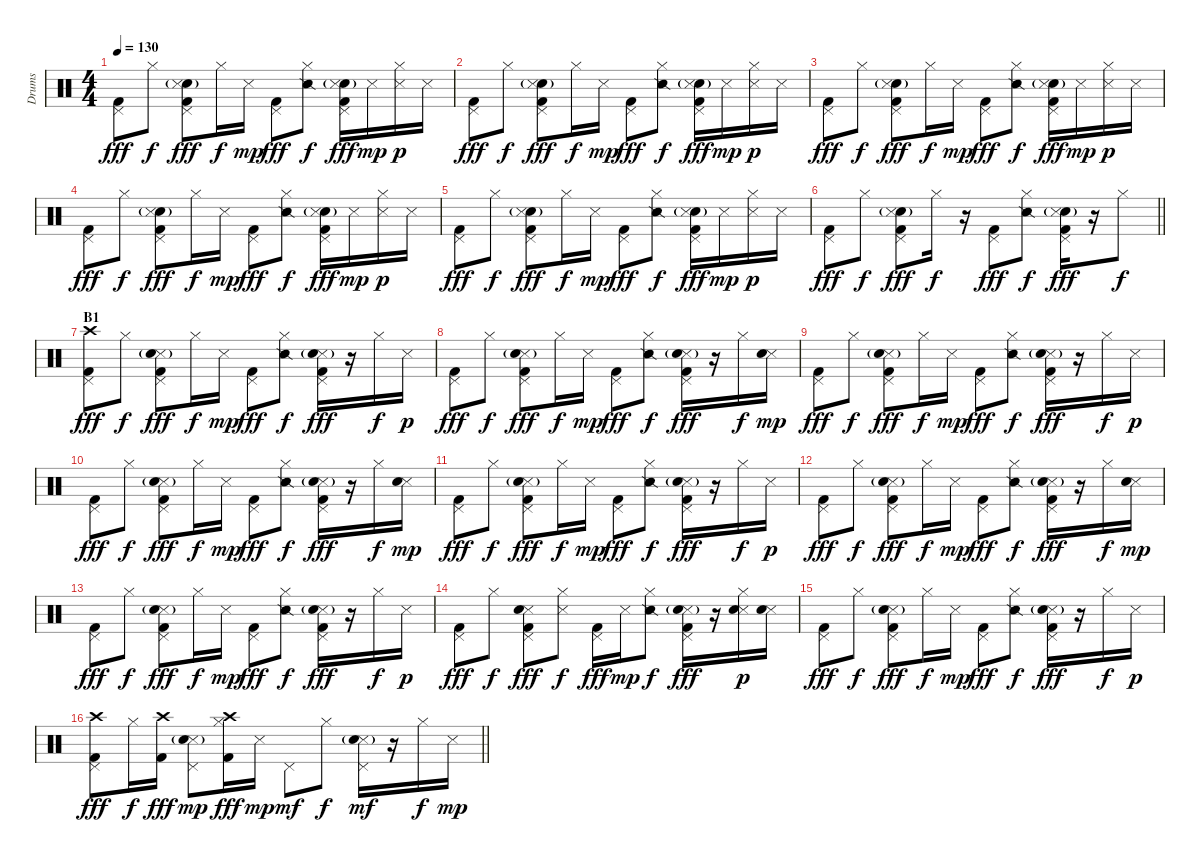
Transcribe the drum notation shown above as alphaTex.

\track ("Drums" "Drums") {instrument percussion}
\staff {score}
\articulation defaults
\ts (4 4)
\tempo 130
\clef neutral
\ks c
("Pedal Hi-Hat (hit)" "Kick (hit) 2").8{dy fff} "Hi-Hat (closed)".8{dy f} ("Pedal Hi-Hat (hit)" "Electric Snare (hit)"{g} "Snare (side stick) 3" "Kick (hit) 2").8{dy fff} "Hi-Hat (closed)".16{dy f} "Snare (side stick) 3".16{dy mp} ("Pedal Hi-Hat (hit)" "Kick (hit) 2").8{dy fff} ("Hi-Hat (closed)" "Snare (side stick) 2").8{dy f} ("Pedal Hi-Hat (hit)" "Electric Snare (hit)"{g} "Snare (side stick) 3" "Kick (hit) 2").16{dy fff} "Snare (side stick) 3".16{dy mp} ("Hi-Hat (closed)" "Snare (side stick) 3").16{dy p} "Snare (side stick) 3".16 |
("Pedal Hi-Hat (hit)" "Kick (hit) 2").8{dy fff} "Hi-Hat (closed)".8{dy f} ("Pedal Hi-Hat (hit)" "Electric Snare (hit)"{g} "Snare (side stick) 3" "Kick (hit) 2").8{dy fff} "Hi-Hat (closed)".16{dy f} "Snare (side stick) 3".16{dy mp} ("Pedal Hi-Hat (hit)" "Kick (hit) 2").8{dy fff} ("Hi-Hat (closed)" "Snare (side stick) 2").8{dy f} ("Pedal Hi-Hat (hit)" "Electric Snare (hit)"{g} "Snare (side stick) 3" "Kick (hit) 2").16{dy fff} "Snare (side stick) 3".16{dy mp} ("Hi-Hat (closed)" "Snare (side stick) 3").16{dy p} "Snare (side stick) 3".16 |
("Pedal Hi-Hat (hit)" "Kick (hit) 2").8{dy fff} "Hi-Hat (closed)".8{dy f} ("Pedal Hi-Hat (hit)" "Electric Snare (hit)"{g} "Snare (side stick) 3" "Kick (hit) 2").8{dy fff} "Hi-Hat (closed)".16{dy f} "Snare (side stick) 3".16{dy mp} ("Pedal Hi-Hat (hit)" "Kick (hit) 2").8{dy fff} ("Hi-Hat (closed)" "Snare (side stick) 2").8{dy f} ("Pedal Hi-Hat (hit)" "Electric Snare (hit)"{g} "Snare (side stick) 3" "Kick (hit) 2").16{dy fff} "Snare (side stick) 3".16{dy mp} ("Hi-Hat (closed)" "Snare (side stick) 3").16{dy p} "Snare (side stick) 3".16 |
("Pedal Hi-Hat (hit)" "Kick (hit) 2").8{dy fff} "Hi-Hat (closed)".8{dy f} ("Pedal Hi-Hat (hit)" "Electric Snare (hit)"{g} "Snare (side stick) 3" "Kick (hit) 2").8{dy fff} "Hi-Hat (closed)".16{dy f} "Snare (side stick) 3".16{dy mp} ("Pedal Hi-Hat (hit)" "Kick (hit) 2").8{dy fff} ("Hi-Hat (closed)" "Snare (side stick) 2").8{dy f} ("Pedal Hi-Hat (hit)" "Electric Snare (hit)"{g} "Snare (side stick) 3" "Kick (hit) 2").16{dy fff} "Snare (side stick) 3".16{dy mp} ("Hi-Hat (closed)" "Snare (side stick) 3").16{dy p} "Snare (side stick) 3".16 |
("Pedal Hi-Hat (hit)" "Kick (hit) 2").8{dy fff} "Hi-Hat (closed)".8{dy f} ("Pedal Hi-Hat (hit)" "Electric Snare (hit)"{g} "Snare (side stick) 3" "Kick (hit) 2").8{dy fff} "Hi-Hat (closed)".16{dy f} "Snare (side stick) 3".16{dy mp} ("Pedal Hi-Hat (hit)" "Kick (hit) 2").8{dy fff} ("Hi-Hat (closed)" "Snare (side stick) 2").8{dy f} ("Pedal Hi-Hat (hit)" "Electric Snare (hit)"{g} "Snare (side stick) 3" "Kick (hit) 2").16{dy fff} "Snare (side stick) 3".16{dy mp} ("Hi-Hat (closed)" "Snare (side stick) 3").16{dy p} "Snare (side stick) 3".16 |
\barLineRight lightlight
("Pedal Hi-Hat (hit)" "Kick (hit) 2").8{dy fff} "Hi-Hat (closed)".8{dy f} ("Pedal Hi-Hat (hit)" "Electric Snare (hit)"{g} "Snare (side stick) 3" "Kick (hit) 2").8{dy fff} "Hi-Hat (closed)".16{dy f} r.16 ("Pedal Hi-Hat (hit)" "Kick (hit) 2").8{dy fff} ("Hi-Hat (closed)" "Snare (side stick) 2").8{dy f} ("Pedal Hi-Hat (hit)" "Electric Snare (hit)"{g} "Snare (side stick) 3" "Kick (hit) 2").16{dy fff} r.16 "Hi-Hat (closed)".8{dy f} |
\section ("" "B1")
("Crash high (hit)" "Pedal Hi-Hat (hit)" "Kick (hit) 2").8{dy fff} "Hi-Hat (closed)".8{dy f} ("Pedal Hi-Hat (hit)" "Snare (side stick) 3"{g} "Electric Snare (hit)" "Kick (hit) 2").8{dy fff} "Hi-Hat (closed)".16{dy f} "Snare (side stick) 3".16{dy mp} ("Pedal Hi-Hat (hit)" "Kick (hit) 2").8{dy fff} ("Hi-Hat (closed)" "Snare (side stick) 2").8{dy f} ("Pedal Hi-Hat (hit)" "Snare (side stick) 3"{g} "Electric Snare (hit)" "Kick (hit) 2").16{dy fff} r.16 "Hi-Hat (closed)".16{dy f} "Snare (side stick) 3".16{dy p} |
("Pedal Hi-Hat (hit)" "Kick (hit) 2").8{dy fff} "Hi-Hat (closed)".8{dy f} ("Pedal Hi-Hat (hit)" "Snare (side stick) 3"{g} "Electric Snare (hit)" "Kick (hit) 2").8{dy fff} "Hi-Hat (closed)".16{dy f} "Snare (side stick) 3".16{dy mp} ("Pedal Hi-Hat (hit)" "Kick (hit) 2").8{dy fff} ("Hi-Hat (closed)" "Snare (side stick) 2").8{dy f} ("Pedal Hi-Hat (hit)" "Snare (side stick) 3"{g} "Electric Snare (hit)" "Kick (hit) 2").16{dy fff} r.16 "Hi-Hat (closed)".16{dy f} ("Snare (side stick) 3" "Electric Snare (hit)").16{dy mp} |
("Pedal Hi-Hat (hit)" "Kick (hit) 2").8{dy fff} "Hi-Hat (closed)".8{dy f} ("Pedal Hi-Hat (hit)" "Snare (side stick) 3"{g} "Electric Snare (hit)" "Kick (hit) 2").8{dy fff} "Hi-Hat (closed)".16{dy f} "Snare (side stick) 3".16{dy mp} ("Pedal Hi-Hat (hit)" "Kick (hit) 2").8{dy fff} ("Hi-Hat (closed)" "Snare (side stick) 2").8{dy f} ("Pedal Hi-Hat (hit)" "Snare (side stick) 3"{g} "Electric Snare (hit)" "Kick (hit) 2").16{dy fff} r.16 "Hi-Hat (closed)".16{dy f} "Snare (side stick) 3".16{dy p} |
("Pedal Hi-Hat (hit)" "Kick (hit) 2").8{dy fff} "Hi-Hat (closed)".8{dy f} ("Pedal Hi-Hat (hit)" "Snare (side stick) 3"{g} "Electric Snare (hit)" "Kick (hit) 2").8{dy fff} "Hi-Hat (closed)".16{dy f} "Snare (side stick) 3".16{dy mp} ("Pedal Hi-Hat (hit)" "Kick (hit) 2").8{dy fff} ("Hi-Hat (closed)" "Snare (side stick) 2").8{dy f} ("Pedal Hi-Hat (hit)" "Snare (side stick) 3"{g} "Electric Snare (hit)" "Kick (hit) 2").16{dy fff} r.16 "Hi-Hat (closed)".16{dy f} ("Snare (side stick) 3" "Electric Snare (hit)").16{dy mp} |
("Pedal Hi-Hat (hit)" "Kick (hit) 2").8{dy fff} "Hi-Hat (closed)".8{dy f} ("Pedal Hi-Hat (hit)" "Snare (side stick) 3"{g} "Electric Snare (hit)" "Kick (hit) 2").8{dy fff} "Hi-Hat (closed)".16{dy f} "Snare (side stick) 3".16{dy mp} ("Pedal Hi-Hat (hit)" "Kick (hit) 2").8{dy fff} ("Hi-Hat (closed)" "Snare (side stick) 2").8{dy f} ("Pedal Hi-Hat (hit)" "Snare (side stick) 3"{g} "Electric Snare (hit)" "Kick (hit) 2").16{dy fff} r.16 "Hi-Hat (closed)".16{dy f} "Snare (side stick) 3".16{dy p} |
("Pedal Hi-Hat (hit)" "Kick (hit) 2").8{dy fff} "Hi-Hat (closed)".8{dy f} ("Pedal Hi-Hat (hit)" "Snare (side stick) 3"{g} "Electric Snare (hit)" "Kick (hit) 2").8{dy fff} "Hi-Hat (closed)".16{dy f} "Snare (side stick) 3".16{dy mp} ("Pedal Hi-Hat (hit)" "Kick (hit) 2").8{dy fff} ("Hi-Hat (closed)" "Snare (side stick) 2").8{dy f} ("Pedal Hi-Hat (hit)" "Snare (side stick) 3"{g} "Electric Snare (hit)" "Kick (hit) 2").16{dy fff} r.16 "Hi-Hat (closed)".16{dy f} ("Snare (side stick) 3" "Electric Snare (hit)").16{dy mp} |
("Pedal Hi-Hat (hit)" "Kick (hit) 2").8{dy fff} "Hi-Hat (closed)".8{dy f} ("Pedal Hi-Hat (hit)" "Snare (side stick) 3"{g} "Electric Snare (hit)" "Kick (hit) 2").8{dy fff} "Hi-Hat (closed)".16{dy f} "Snare (side stick) 3".16{dy mp} ("Pedal Hi-Hat (hit)" "Kick (hit) 2").8{dy fff} ("Hi-Hat (closed)" "Snare (side stick) 2").8{dy f} ("Pedal Hi-Hat (hit)" "Snare (side stick) 3"{g} "Electric Snare (hit)" "Kick (hit) 2").16{dy fff} r.16 "Hi-Hat (closed)".16{dy f} "Snare (side stick) 3".16{dy p} |
("Pedal Hi-Hat (hit)" "Kick (hit) 2").8{dy fff} "Hi-Hat (closed)".8{dy f} ("Pedal Hi-Hat (hit)" "Snare (side stick) 3" "Electric Snare (hit)" "Kick (hit) 2").8{dy fff} ("Hi-Hat (closed)" "Snare (side stick) 3").8{dy f} ("Pedal Hi-Hat (hit)" "Kick (hit) 2").16{dy fff} "Snare (side stick) 3".16{dy mp} ("Hi-Hat (closed)" "Snare (side stick) 2").8{dy f} ("Pedal Hi-Hat (hit)" "Snare (side stick) 3"{g} "Electric Snare (hit)" "Kick (hit) 2").16{dy fff} r.16 ("Hi-Hat (closed)" "Snare (side stick) 3" "Electric Snare (hit)").16{dy p} ("Snare (side stick) 3" "Electric Snare (hit)").16 |
("Pedal Hi-Hat (hit)" "Kick (hit) 2").8{dy fff} "Hi-Hat (closed)".8{dy f} ("Pedal Hi-Hat (hit)" "Snare (side stick) 3"{g} "Electric Snare (hit)" "Kick (hit) 2").8{dy fff} "Hi-Hat (closed)".16{dy f} "Snare (side stick) 3".16{dy mp} ("Pedal Hi-Hat (hit)" "Kick (hit) 2").8{dy fff} ("Hi-Hat (closed)" "Snare (side stick) 2").8{dy f} ("Pedal Hi-Hat (hit)" "Snare (side stick) 3"{g} "Electric Snare (hit)" "Kick (hit) 2").16{dy fff} r.16 "Hi-Hat (closed)".16{dy f} "Snare (side stick) 3".16{dy p} |
\barLineRight lightlight
("Crash high (hit)" "Pedal Hi-Hat (hit)" "Kick (hit) 2").8{dy fff} "Hi-Hat (closed)".16{dy f} ("Crash high (hit)" "Kick (hit) 2").16{dy fff} ("Pedal Hi-Hat (hit)" "Snare (side stick) 3"{g} "Electric Snare (hit)"{g}).8{dy mp} ("Crash high (hit)" "Hi-Hat (closed)" "Kick (hit) 2").16{dy fff} "Snare (side stick) 3".16{dy mp} "Pedal Hi-Hat (hit)".8{dy mf} "Hi-Hat (closed)".8{dy f} ("Pedal Hi-Hat (hit)" "Snare (side stick) 3"{g} "Electric Snare (hit)"{g}).16{dy mf} r.16 "Hi-Hat (closed)".16{dy f} "Snare (side stick) 3".16{dy mp}
